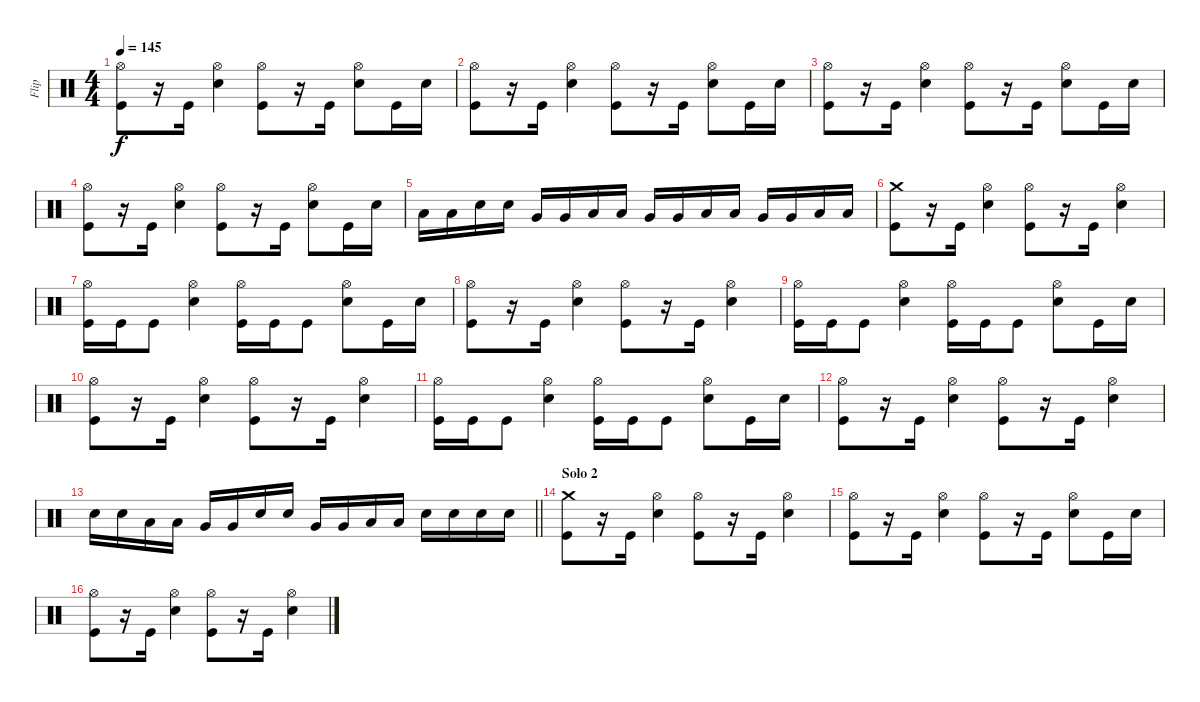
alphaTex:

\track ("Flip" "Flip") {instrument percussion}
\staff {score}
\articulation defaults
\ts (4 4)
\tempo 145
\clef neutral
\ks c
("Hi-Hat (open)" "Kick (hit)").8{dy f} r.16 "Kick (hit)".16 ("Hi-Hat (open)" "Snare (hit) 2").4 ("Hi-Hat (open)" "Kick (hit)").8 r.16 "Kick (hit)".16 ("Hi-Hat (open)" "Snare (hit) 2").8 "Kick (hit)".16 "Snare (hit) 2".16 |
("Hi-Hat (open)" "Kick (hit)").8 r.16 "Kick (hit)".16 ("Hi-Hat (open)" "Snare (hit) 2").4 ("Hi-Hat (open)" "Kick (hit)").8 r.16 "Kick (hit)".16 ("Hi-Hat (open)" "Snare (hit) 2").8 "Kick (hit)".16 "Snare (hit) 2".16 |
("Hi-Hat (open)" "Kick (hit)").8 r.16 "Kick (hit)".16 ("Hi-Hat (open)" "Snare (hit) 2").4 ("Hi-Hat (open)" "Kick (hit)").8 r.16 "Kick (hit)".16 ("Hi-Hat (open)" "Snare (hit) 2").8 "Kick (hit)".16 "Snare (hit) 2".16 |
("Hi-Hat (open)" "Kick (hit)").8 r.16 "Kick (hit)".16 ("Hi-Hat (open)" "Snare (hit) 2").4 ("Hi-Hat (open)" "Kick (hit)").8 r.16 "Kick (hit)".16 ("Hi-Hat (open)" "Snare (hit) 2").8 "Kick (hit)".16 "Snare (hit) 2".16 |
"Low Tom (hit)".16 "Low Tom (hit)".16 "Snare (hit) 2".16 "Snare (hit) 2".16 "Very Low Tom (hit)".16 "Very Low Tom (hit)".16 "Low Floor Tom (hit)".16 "Low Floor Tom (hit)".16 "Very Low Tom (hit)".16 "Very Low Tom (hit)".16 "Low Tom (hit)".16 "Low Tom (hit)".16 "Very Low Tom (hit)".16 "Very Low Tom (hit)".16 "Low Floor Tom (hit)".16 "Low Floor Tom (hit)".16 |
("Crash medium (hit)" "Kick (hit)").8 r.16 "Kick (hit)".16 ("Hi-Hat (open)" "Snare (hit) 2").4 ("Hi-Hat (open)" "Kick (hit)").8 r.16 "Kick (hit)".16 ("Hi-Hat (open)" "Snare (hit) 2").4 |
("Hi-Hat (open)" "Kick (hit)").16 "Kick (hit)".16 "Kick (hit)".8 ("Hi-Hat (open)" "Snare (hit) 2").4 ("Hi-Hat (open)" "Kick (hit)").16 "Kick (hit)".16 "Kick (hit)".8 ("Hi-Hat (open)" "Snare (hit) 2").8 "Kick (hit)".16 "Snare (hit) 2".16 |
("Hi-Hat (open)" "Kick (hit)").8 r.16 "Kick (hit)".16 ("Hi-Hat (open)" "Snare (hit) 2").4 ("Hi-Hat (open)" "Kick (hit)").8 r.16 "Kick (hit)".16 ("Hi-Hat (open)" "Snare (hit) 2").4 |
("Hi-Hat (open)" "Kick (hit)").16 "Kick (hit)".16 "Kick (hit)".8 ("Hi-Hat (open)" "Snare (hit) 2").4 ("Hi-Hat (open)" "Kick (hit)").16 "Kick (hit)".16 "Kick (hit)".8 ("Hi-Hat (open)" "Snare (hit) 2").8 "Kick (hit)".16 "Snare (hit) 2".16 |
("Hi-Hat (open)" "Kick (hit)").8 r.16 "Kick (hit)".16 ("Hi-Hat (open)" "Snare (hit) 2").4 ("Hi-Hat (open)" "Kick (hit)").8 r.16 "Kick (hit)".16 ("Hi-Hat (open)" "Snare (hit) 2").4 |
("Hi-Hat (open)" "Kick (hit)").16 "Kick (hit)".16 "Kick (hit)".8 ("Hi-Hat (open)" "Snare (hit) 2").4 ("Hi-Hat (open)" "Kick (hit)").16 "Kick (hit)".16 "Kick (hit)".8 ("Hi-Hat (open)" "Snare (hit) 2").8 "Kick (hit)".16 "Snare (hit) 2".16 |
("Hi-Hat (open)" "Kick (hit)").8 r.16 "Kick (hit)".16 ("Hi-Hat (open)" "Snare (hit) 2").4 ("Hi-Hat (open)" "Kick (hit)").8 r.16 "Kick (hit)".16 ("Hi-Hat (open)" "Snare (hit) 2").4 |
\barLineRight lightlight "Snare (hit) 2".16 "Snare (hit) 2".16 "Low Tom (hit)".16 "Low Tom (hit)".16 "Very Low Tom (hit)".16 "Very Low Tom (hit)".16 "Snare (hit) 2".16 "Snare (hit) 2".16 "Very Low Tom (hit)".16 "Very Low Tom (hit)".16 "Low Tom (hit)".16 "Low Tom (hit)".16 "Snare (hit) 2".16 "Snare (hit) 2".16 "Snare (hit) 2".16 "Snare (hit) 2".16
|
\section ("" "Solo 2")
("Crash medium (hit)" "Kick (hit)").8 r.16 "Kick (hit)".16 ("Hi-Hat (open)" "Snare (hit) 2").4 ("Hi-Hat (open)" "Kick (hit)").8 r.16 "Kick (hit)".16 ("Hi-Hat (open)" "Snare (hit) 2").4 |
("Hi-Hat (open)" "Kick (hit)").8 r.16 "Kick (hit)".16 ("Hi-Hat (open)" "Snare (hit) 2").4 ("Hi-Hat (open)" "Kick (hit)").8 r.16 "Kick (hit)".16 ("Hi-Hat (open)" "Snare (hit) 2").8 "Kick (hit)".16 "Snare (hit) 2".16 |
("Hi-Hat (open)" "Kick (hit)").8 r.16 "Kick (hit)".16 ("Hi-Hat (open)" "Snare (hit) 2").4 ("Hi-Hat (open)" "Kick (hit)").8 r.16 "Kick (hit)".16 ("Hi-Hat (open)" "Snare (hit) 2").4
